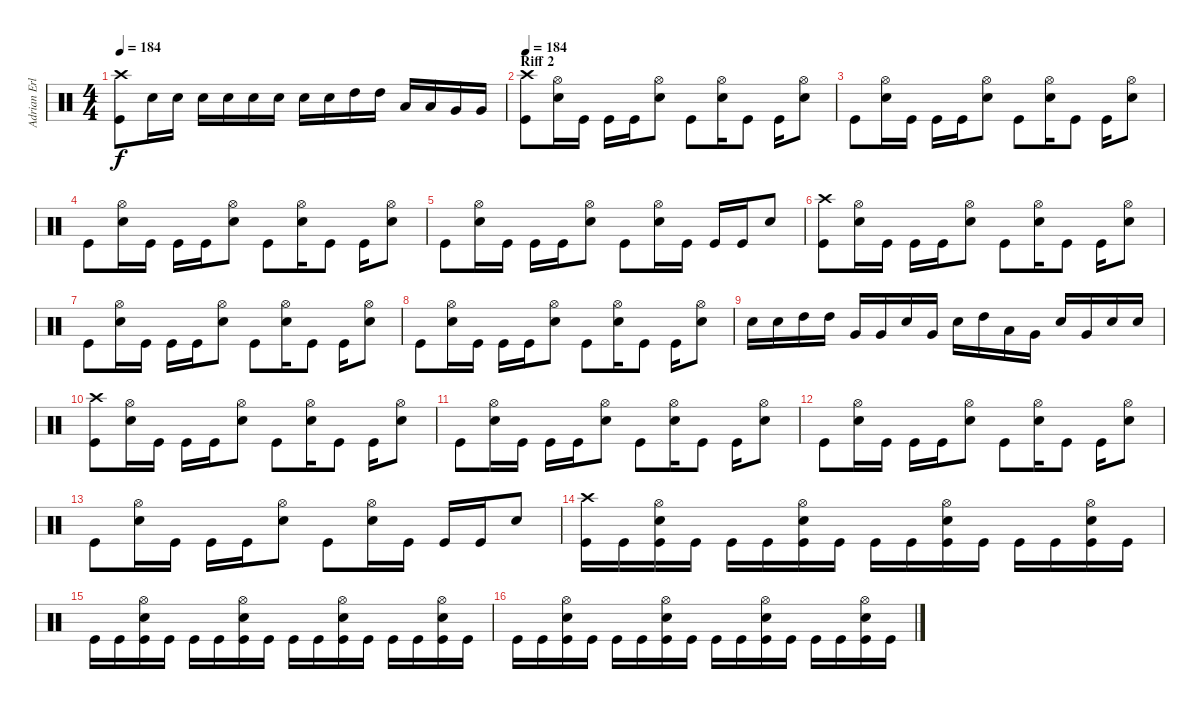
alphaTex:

\track ("Adrian Erlandsson (Norseman of the Apoca" "Adrian Erl") {instrument percussion}
\staff {score}
\articulation defaults
\ts (4 4)
\tempo 184
\clef neutral
\ks c
("Crash high (hit)" "Kick (hit)").8{dy f} "Electric Snare (hit)".16 "Electric Snare (hit)".16 "Electric Snare (hit)".16 "Electric Snare (hit)".16 "Electric Snare (hit)".16 "Electric Snare (hit)".16 "Electric Snare (hit)".16 "Electric Snare (hit)".16 "High Tom (hit)".16 "High Tom (hit)".16 "Low Tom (hit)".16 "Low Tom (hit)".16 "Very Low Tom (hit)".16 "Very Low Tom (hit)".16 |
\section ("" "Riff 2")
\tempo 184
("Crash high (hit)" "Kick (hit)").8 ("Hi-Hat (open)" "Electric Snare (hit)").16 "Kick (hit)".16 "Kick (hit)".16 "Kick (hit)".16 ("Hi-Hat (open)" "Electric Snare (hit)").8 "Kick (hit)".8 ("Hi-Hat (open)" "Electric Snare (hit)").16 "Kick (hit)".8 "Kick (hit)".16 ("Hi-Hat (open)" "Electric Snare (hit)").8 |
"Kick (hit)".8 ("Hi-Hat (open)" "Electric Snare (hit)").16 "Kick (hit)".16 "Kick (hit)".16 "Kick (hit)".16 ("Hi-Hat (open)" "Electric Snare (hit)").8 "Kick (hit)".8 ("Hi-Hat (open)" "Electric Snare (hit)").16 "Kick (hit)".8 "Kick (hit)".16 ("Hi-Hat (open)" "Electric Snare (hit)").8 |
"Kick (hit)".8 ("Hi-Hat (open)" "Electric Snare (hit)").16 "Kick (hit)".16 "Kick (hit)".16 "Kick (hit)".16 ("Hi-Hat (open)" "Electric Snare (hit)").8 "Kick (hit)".8 ("Hi-Hat (open)" "Electric Snare (hit)").16 "Kick (hit)".8 "Kick (hit)".16 ("Hi-Hat (open)" "Electric Snare (hit)").8 |
"Kick (hit)".8 ("Hi-Hat (open)" "Electric Snare (hit)").16 "Kick (hit)".16 "Kick (hit)".16 "Kick (hit)".16 ("Hi-Hat (open)" "Electric Snare (hit)").8 "Kick (hit)".8 ("Hi-Hat (open)" "Electric Snare (hit)").16 "Kick (hit)".16 "Kick (hit)".16 "Kick (hit)".16 "Electric Snare (hit)".8 |
("Crash high (hit)" "Kick (hit)").8 ("Hi-Hat (open)" "Electric Snare (hit)").16 "Kick (hit)".16 "Kick (hit)".16 "Kick (hit)".16 ("Hi-Hat (open)" "Electric Snare (hit)").8 "Kick (hit)".8 ("Hi-Hat (open)" "Electric Snare (hit)").16 "Kick (hit)".8 "Kick (hit)".16 ("Hi-Hat (open)" "Electric Snare (hit)").8 |
"Kick (hit)".8 ("Hi-Hat (open)" "Electric Snare (hit)").16 "Kick (hit)".16 "Kick (hit)".16 "Kick (hit)".16 ("Hi-Hat (open)" "Electric Snare (hit)").8 "Kick (hit)".8 ("Hi-Hat (open)" "Electric Snare (hit)").16 "Kick (hit)".8 "Kick (hit)".16 ("Hi-Hat (open)" "Electric Snare (hit)").8 |
"Kick (hit)".8 ("Hi-Hat (open)" "Electric Snare (hit)").16 "Kick (hit)".16 "Kick (hit)".16 "Kick (hit)".16 ("Hi-Hat (open)" "Electric Snare (hit)").8 "Kick (hit)".8 ("Hi-Hat (open)" "Electric Snare (hit)").16 "Kick (hit)".8 "Kick (hit)".16 ("Hi-Hat (open)" "Electric Snare (hit)").8 |
"Electric Snare (hit)".16 "Electric Snare (hit)".16 "High Tom (hit)".16 "High Tom (hit)".16 "Very Low Tom (hit)".16 "Very Low Tom (hit)".16 "Electric Snare (hit)".16 "Very Low Tom (hit)".16 "Electric Snare (hit)".16 "High Tom (hit)".16 "Low Tom (hit)".16 "Very Low Tom (hit)".16 "Electric Snare (hit)".16 "Very Low Tom (hit)".16 "Electric Snare (hit)".16 "Electric Snare (hit)".16 |
("Crash high (hit)" "Kick (hit)").8 ("Hi-Hat (open)" "Electric Snare (hit)").16 "Kick (hit)".16 "Kick (hit)".16 "Kick (hit)".16 ("Hi-Hat (open)" "Electric Snare (hit)").8 "Kick (hit)".8 ("Hi-Hat (open)" "Electric Snare (hit)").16 "Kick (hit)".8 "Kick (hit)".16 ("Hi-Hat (open)" "Electric Snare (hit)").8 |
"Kick (hit)".8 ("Hi-Hat (open)" "Electric Snare (hit)").16 "Kick (hit)".16 "Kick (hit)".16 "Kick (hit)".16 ("Hi-Hat (open)" "Electric Snare (hit)").8 "Kick (hit)".8 ("Hi-Hat (open)" "Electric Snare (hit)").16 "Kick (hit)".8 "Kick (hit)".16 ("Hi-Hat (open)" "Electric Snare (hit)").8 |
"Kick (hit)".8 ("Hi-Hat (open)" "Electric Snare (hit)").16 "Kick (hit)".16 "Kick (hit)".16 "Kick (hit)".16 ("Hi-Hat (open)" "Electric Snare (hit)").8 "Kick (hit)".8 ("Hi-Hat (open)" "Electric Snare (hit)").16 "Kick (hit)".8 "Kick (hit)".16 ("Hi-Hat (open)" "Electric Snare (hit)").8 |
"Kick (hit)".8 ("Hi-Hat (open)" "Electric Snare (hit)").16 "Kick (hit)".16 "Kick (hit)".16 "Kick (hit)".16 ("Hi-Hat (open)" "Electric Snare (hit)").8 "Kick (hit)".8 ("Hi-Hat (open)" "Electric Snare (hit)").16 "Kick (hit)".16 "Kick (hit)".16 "Kick (hit)".16 "Electric Snare (hit)".8 |
("Crash high (hit)" "Kick (hit)").16 "Kick (hit)".16 ("Hi-Hat (open)" "Electric Snare (hit)" "Kick (hit)").16 "Kick (hit)".16 "Kick (hit)".16 "Kick (hit)".16 ("Hi-Hat (open)" "Electric Snare (hit)" "Kick (hit)").16 "Kick (hit)".16 "Kick (hit)".16 "Kick (hit)".16 ("Hi-Hat (open)" "Electric Snare (hit)" "Kick (hit)").16 "Kick (hit)".16 "Kick (hit)".16 "Kick (hit)".16 ("Hi-Hat (open)" "Electric Snare (hit)" "Kick (hit)").16 "Kick (hit)".16 |
"Kick (hit)".16 "Kick (hit)".16 ("Hi-Hat (open)" "Electric Snare (hit)" "Kick (hit)").16 "Kick (hit)".16 "Kick (hit)".16 "Kick (hit)".16 ("Hi-Hat (open)" "Electric Snare (hit)" "Kick (hit)").16 "Kick (hit)".16 "Kick (hit)".16 "Kick (hit)".16 ("Hi-Hat (open)" "Electric Snare (hit)" "Kick (hit)").16 "Kick (hit)".16 "Kick (hit)".16 "Kick (hit)".16 ("Hi-Hat (open)" "Electric Snare (hit)" "Kick (hit)").16 "Kick (hit)".16 |
"Kick (hit)".16 "Kick (hit)".16 ("Hi-Hat (open)" "Electric Snare (hit)" "Kick (hit)").16 "Kick (hit)".16 "Kick (hit)".16 "Kick (hit)".16 ("Hi-Hat (open)" "Electric Snare (hit)" "Kick (hit)").16 "Kick (hit)".16 "Kick (hit)".16 "Kick (hit)".16 ("Hi-Hat (open)" "Electric Snare (hit)" "Kick (hit)").16 "Kick (hit)".16 "Kick (hit)".16 "Kick (hit)".16 ("Hi-Hat (open)" "Electric Snare (hit)" "Kick (hit)").16 "Kick (hit)".16
